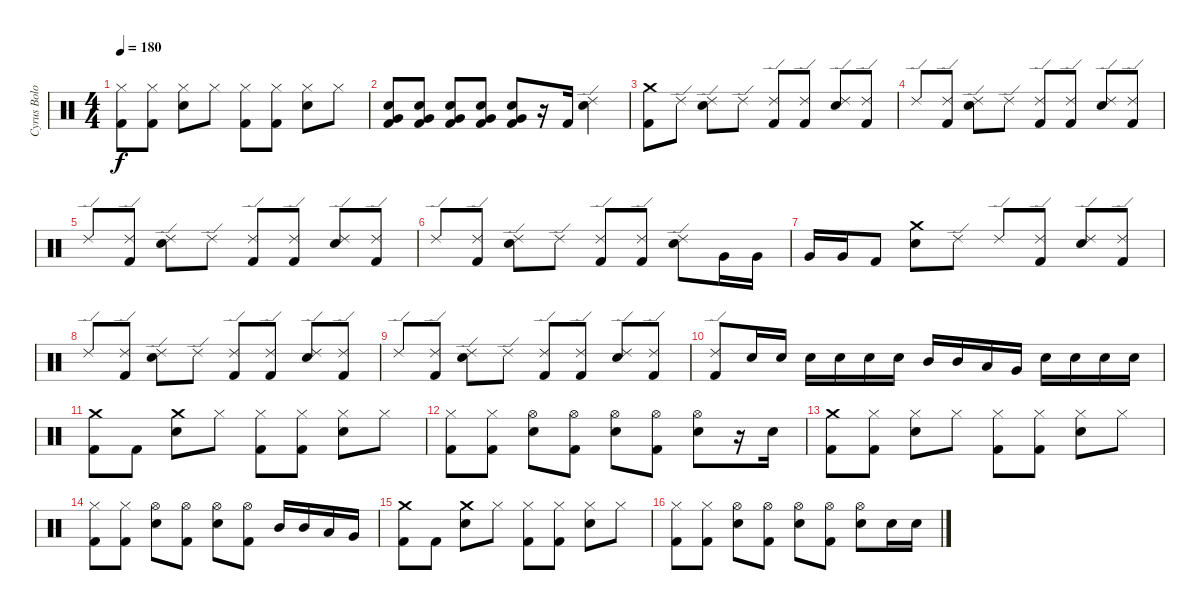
\track ("Cyrus Bolooki - Drums" "Cyrus Bolo") {instrument percussion}
\staff {score}
\articulation defaults
\ts (4 4)
\tempo 180
\clef neutral
\ks c
("Hi-Hat (closed)" "Kick (hit) 2").8{dy f} ("Hi-Hat (closed)" "Kick (hit) 2").8 ("Hi-Hat (closed)" "Electric Snare (hit)").8 "Hi-Hat (closed)".8 ("Hi-Hat (closed)" "Kick (hit) 2").8 ("Hi-Hat (closed)" "Kick (hit) 2").8 ("Hi-Hat (closed)" "Electric Snare (hit)").8 "Hi-Hat (closed)".8 |
("Very Low Tom (hit)" "Electric Snare (hit)" "Kick (hit) 2").8 ("Very Low Tom (hit)" "Electric Snare (hit)" "Kick (hit) 2").8 ("Very Low Tom (hit)" "Electric Snare (hit)" "Kick (hit) 2").8 ("Very Low Tom (hit)" "Electric Snare (hit)" "Kick (hit) 2").8 ("Very Low Tom (hit)" "Electric Snare (hit)" "Kick (hit) 2").8 r.16 "Kick (hit) 2".16 ("Ride (edge) 2" "Electric Snare (hit)").4 |
("Crash medium (hit)" "Kick (hit) 2").8 "Ride (edge) 2".8 ("Ride (edge) 2" "Electric Snare (hit)").8 "Ride (edge) 2".8 ("Ride (edge) 2" "Kick (hit) 2").8 ("Ride (edge) 2" "Kick (hit) 2").8 ("Ride (edge) 2" "Electric Snare (hit)").8 ("Ride (edge) 2" "Kick (hit) 2").8 |
"Ride (edge) 2".8 ("Ride (edge) 2" "Kick (hit) 2").8 ("Ride (edge) 2" "Electric Snare (hit)").8 "Ride (edge) 2".8 ("Ride (edge) 2" "Kick (hit) 2").8 ("Ride (edge) 2" "Kick (hit) 2").8 ("Ride (edge) 2" "Electric Snare (hit)").8 ("Ride (edge) 2" "Kick (hit) 2").8 |
"Ride (edge) 2".8 ("Ride (edge) 2" "Kick (hit) 2").8 ("Ride (edge) 2" "Electric Snare (hit)").8 "Ride (edge) 2".8 ("Ride (edge) 2" "Kick (hit) 2").8 ("Ride (edge) 2" "Kick (hit) 2").8 ("Ride (edge) 2" "Electric Snare (hit)").8 ("Ride (edge) 2" "Kick (hit) 2").8 |
"Ride (edge) 2".8 ("Ride (edge) 2" "Kick (hit) 2").8 ("Ride (edge) 2" "Electric Snare (hit)").8 "Ride (edge) 2".8 ("Ride (edge) 2" "Kick (hit) 2").8 ("Ride (edge) 2" "Kick (hit) 2").8 ("Ride (edge) 2" "Electric Snare (hit)").8 "Very Low Tom (hit)".16 "Very Low Tom (hit)".16 |
"Very Low Tom (hit)".16 "Very Low Tom (hit)".16 "Kick (hit) 2".8 ("Crash medium (hit)" "Electric Snare (hit)").8 "Ride (edge) 2".8 "Ride (edge) 2".8 ("Ride (edge) 2" "Kick (hit) 2").8 ("Ride (edge) 2" "Electric Snare (hit)").8 ("Ride (edge) 2" "Kick (hit) 2").8 |
"Ride (edge) 2".8 ("Ride (edge) 2" "Kick (hit) 2").8 ("Ride (edge) 2" "Electric Snare (hit)").8 "Ride (edge) 2".8 ("Ride (edge) 2" "Kick (hit) 2").8 ("Ride (edge) 2" "Kick (hit) 2").8 ("Ride (edge) 2" "Electric Snare (hit)").8 ("Ride (edge) 2" "Kick (hit) 2").8 |
"Ride (edge) 2".8 ("Ride (edge) 2" "Kick (hit) 2").8 ("Ride (edge) 2" "Electric Snare (hit)").8 "Ride (edge) 2".8 ("Ride (edge) 2" "Kick (hit) 2").8 ("Ride (edge) 2" "Kick (hit) 2").8 ("Ride (edge) 2" "Electric Snare (hit)").8 ("Ride (edge) 2" "Kick (hit) 2").8 |
("Ride (edge) 2" "Kick (hit) 2").8 "Electric Snare (hit)".16 "Electric Snare (hit)".16 "Electric Snare (hit)".16 "Electric Snare (hit)".16 "Electric Snare (hit)".16 "Electric Snare (hit)".16 "Mid Tom (hit)".16 "Mid Tom (hit)".16 "Low Tom (hit)".16 "Very Low Tom (hit)".16 "Electric Snare (hit)".16 "Electric Snare (hit)".16 "Electric Snare (hit)".16 "Electric Snare (hit)".16 |
("Crash medium (hit)" "Kick (hit) 2").8 "Kick (hit) 2".8 ("Crash medium (hit)" "Electric Snare (hit)").8 "Hi-Hat (closed)".8 ("Hi-Hat (closed)" "Kick (hit) 2").8 ("Hi-Hat (closed)" "Kick (hit) 2").8 ("Hi-Hat (closed)" "Electric Snare (hit)").8 "Hi-Hat (closed)".8 |
("Hi-Hat (closed)" "Kick (hit) 2").8 ("Hi-Hat (closed)" "Kick (hit) 2").8 ("Hi-Hat (open)" "Electric Snare (hit)").8 ("Hi-Hat (open)" "Kick (hit) 2").8 ("Hi-Hat (open)" "Electric Snare (hit)").8 ("Hi-Hat (open)" "Kick (hit) 2").8 ("Hi-Hat (open)" "Electric Snare (hit)").8 r.16 "Electric Snare (hit)".16 |
("Crash medium (hit)" "Kick (hit) 2").8 ("Hi-Hat (closed)" "Kick (hit) 2").8 ("Hi-Hat (closed)" "Electric Snare (hit)").8 "Hi-Hat (closed)".8 ("Hi-Hat (closed)" "Kick (hit) 2").8 ("Hi-Hat (closed)" "Kick (hit) 2").8 ("Hi-Hat (closed)" "Electric Snare (hit)").8 "Hi-Hat (closed)".8 |
("Hi-Hat (closed)" "Kick (hit) 2").8 ("Hi-Hat (closed)" "Kick (hit) 2").8 ("Hi-Hat (open)" "Electric Snare (hit)").8 ("Hi-Hat (open)" "Kick (hit) 2").8 ("Hi-Hat (open)" "Electric Snare (hit)").8 ("Hi-Hat (open)" "Kick (hit) 2").8 "Mid Tom (hit)".16 "Mid Tom (hit)".16 "Low Tom (hit)".16 "Very Low Tom (hit)".16 |
("Crash medium (hit)" "Kick (hit) 2").8 "Kick (hit) 2".8 ("Crash medium (hit)" "Electric Snare (hit)").8 "Hi-Hat (closed)".8 ("Hi-Hat (closed)" "Kick (hit) 2").8 ("Hi-Hat (closed)" "Kick (hit) 2").8 ("Hi-Hat (closed)" "Electric Snare (hit)").8 "Hi-Hat (closed)".8 |
("Hi-Hat (closed)" "Kick (hit) 2").8 ("Hi-Hat (closed)" "Kick (hit) 2").8 ("Hi-Hat (open)" "Electric Snare (hit)").8 ("Hi-Hat (open)" "Kick (hit) 2").8 ("Hi-Hat (open)" "Electric Snare (hit)").8 ("Hi-Hat (open)" "Kick (hit) 2").8 ("Hi-Hat (open)" "Electric Snare (hit)").8 "Electric Snare (hit)".16 "Electric Snare (hit)".16
